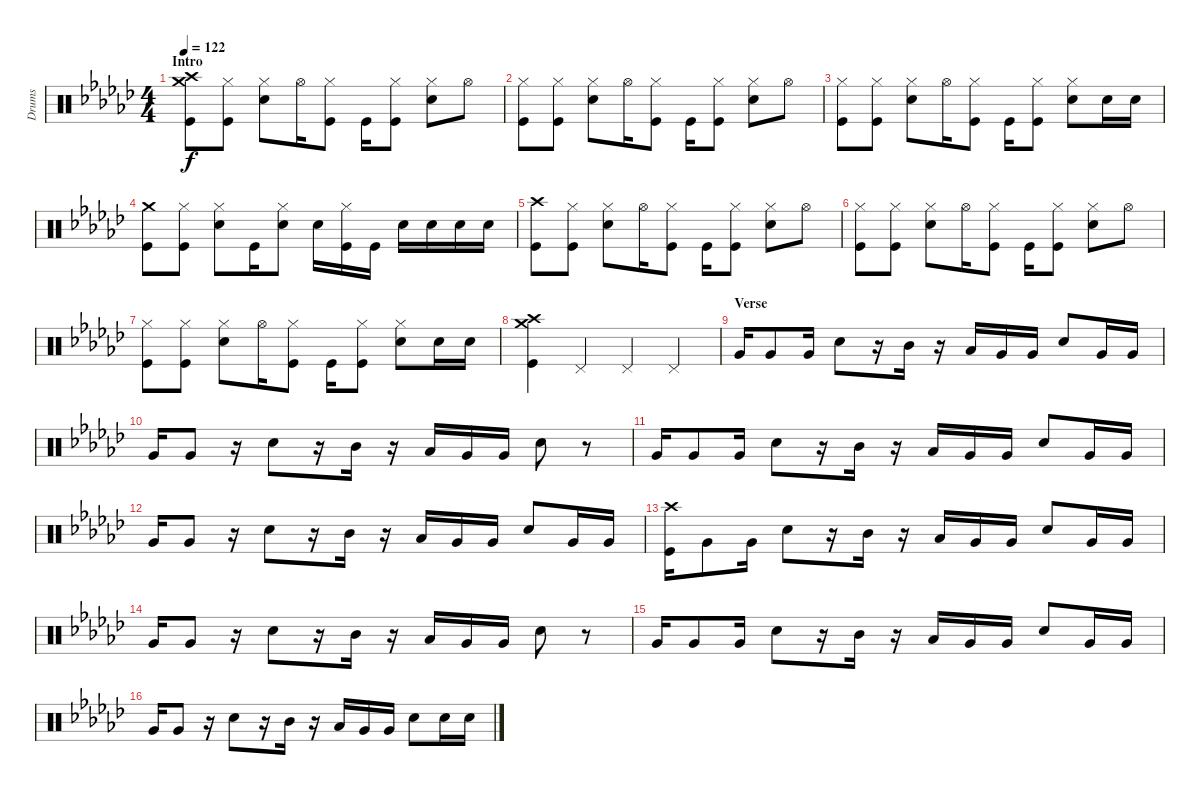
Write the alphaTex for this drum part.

\track ("Drums" "Drums") {instrument percussion}
\staff {score}
\articulation defaults
\ts (4 4)
\section ("" "Intro")
\tempo 122
\clef neutral
\ks ebminor
("Crash medium (hit)" "Crash high (hit)" "Kick (hit)").8{dy f} ("Hi-Hat (closed)" "Kick (hit)").8 ("Hi-Hat (closed)" "Snare (hit) 2").8 "Hi-Hat (open)".16 ("Hi-Hat (closed)" "Kick (hit)").8 "Kick (hit)".16 ("Hi-Hat (closed)" "Kick (hit)").8 ("Hi-Hat (closed)" "Snare (hit) 2").8 "Hi-Hat (open)".8 |
("Hi-Hat (closed)" "Kick (hit)").8 ("Hi-Hat (closed)" "Kick (hit)").8 ("Hi-Hat (closed)" "Snare (hit) 2").8 "Hi-Hat (open)".16 ("Hi-Hat (closed)" "Kick (hit)").8 "Kick (hit)".16 ("Hi-Hat (closed)" "Kick (hit)").8 ("Hi-Hat (closed)" "Snare (hit) 2").8 "Hi-Hat (open)".8 |
("Hi-Hat (closed)" "Kick (hit)").8 ("Hi-Hat (closed)" "Kick (hit)").8 ("Hi-Hat (closed)" "Snare (hit) 2").8 "Hi-Hat (open)".16 ("Hi-Hat (closed)" "Kick (hit)").8 "Kick (hit)".16 ("Hi-Hat (closed)" "Kick (hit)").8 ("Hi-Hat (closed)" "Snare (hit) 2").8 "Snare (hit) 2".16 "Snare (hit) 2".16 |
("Crash medium (hit)" "Kick (hit)").8 ("Hi-Hat (closed)" "Kick (hit)").8 ("Hi-Hat (closed)" "Snare (hit) 2").8 "Kick (hit)".16 ("Hi-Hat (closed)" "Snare (hit) 2").8 "Snare (hit) 2".16 ("Hi-Hat (closed)" "Kick (hit)").16 "Kick (hit)".16 "Snare (hit) 2".16 "Snare (hit) 2".16 "Snare (hit) 2".16 "Snare (hit) 2".16 |
("Crash high (hit)" "Kick (hit)").8 ("Hi-Hat (closed)" "Kick (hit)").8 ("Hi-Hat (closed)" "Snare (hit) 2").8 "Hi-Hat (open)".16 ("Hi-Hat (closed)" "Kick (hit)").8 "Kick (hit)".16 ("Hi-Hat (closed)" "Kick (hit)").8 ("Hi-Hat (closed)" "Snare (hit) 2").8 "Hi-Hat (open)".8 |
("Hi-Hat (closed)" "Kick (hit)").8 ("Hi-Hat (closed)" "Kick (hit)").8 ("Hi-Hat (closed)" "Snare (hit) 2").8 "Hi-Hat (open)".16 ("Hi-Hat (closed)" "Kick (hit)").8 "Kick (hit)".16 ("Hi-Hat (closed)" "Kick (hit)").8 ("Hi-Hat (closed)" "Snare (hit) 2").8 "Hi-Hat (open)".8 |
("Hi-Hat (closed)" "Kick (hit)").8 ("Hi-Hat (closed)" "Kick (hit)").8 ("Hi-Hat (closed)" "Snare (hit) 2").8 "Hi-Hat (open)".16 ("Hi-Hat (closed)" "Kick (hit)").8 "Kick (hit)".16 ("Hi-Hat (closed)" "Kick (hit)").8 ("Hi-Hat (closed)" "Snare (hit) 2").8 "Snare (hit) 2".16 "Snare (hit) 2".16 |
("Crash high (hit)" "Crash medium (hit)" "Kick (hit)").4 "Pedal Hi-Hat (hit)".4 "Pedal Hi-Hat (hit)".4 "Pedal Hi-Hat (hit)".4 |
\section ("" "Verse")
"Very Low Tom (hit)".16 "Very Low Tom (hit)".8 "Very Low Tom (hit)".16 "Snare (hit) 2".8 r.16 "Mid Tom (hit)".16 r.16 "Low Tom (hit)".16 "Very Low Tom (hit)".16 "Very Low Tom (hit)".16 "Snare (hit) 2".8 "Very Low Tom (hit)".16 "Very Low Tom (hit)".16 |
"Very Low Tom (hit)".16 "Very Low Tom (hit)".8 r.16 "Snare (hit) 2".8 r.16 "Mid Tom (hit)".16 r.16 "Low Tom (hit)".16 "Very Low Tom (hit)".16 "Very Low Tom (hit)".16 "Snare (hit) 2".8 r.8 |
"Very Low Tom (hit)".16 "Very Low Tom (hit)".8 "Very Low Tom (hit)".16 "Snare (hit) 2".8 r.16 "Mid Tom (hit)".16 r.16 "Low Tom (hit)".16 "Very Low Tom (hit)".16 "Very Low Tom (hit)".16 "Snare (hit) 2".8 "Very Low Tom (hit)".16 "Very Low Tom (hit)".16 |
"Very Low Tom (hit)".16 "Very Low Tom (hit)".8 r.16 "Snare (hit) 2".8 r.16 "Mid Tom (hit)".16 r.16 "Low Tom (hit)".16 "Very Low Tom (hit)".16 "Very Low Tom (hit)".16 "Snare (hit) 2".8 "Very Low Tom (hit)".16 "Very Low Tom (hit)".16 |
("Crash high (hit)" "Kick (hit)").16 "Very Low Tom (hit)".8 "Very Low Tom (hit)".16 "Snare (hit) 2".8 r.16 "Mid Tom (hit)".16 r.16 "Low Tom (hit)".16 "Very Low Tom (hit)".16 "Very Low Tom (hit)".16 "Snare (hit) 2".8 "Very Low Tom (hit)".16 "Very Low Tom (hit)".16 |
"Very Low Tom (hit)".16 "Very Low Tom (hit)".8 r.16 "Snare (hit) 2".8 r.16 "Mid Tom (hit)".16 r.16 "Low Tom (hit)".16 "Very Low Tom (hit)".16 "Very Low Tom (hit)".16 "Snare (hit) 2".8 r.8 |
"Very Low Tom (hit)".16 "Very Low Tom (hit)".8 "Very Low Tom (hit)".16 "Snare (hit) 2".8 r.16 "Mid Tom (hit)".16 r.16 "Low Tom (hit)".16 "Very Low Tom (hit)".16 "Very Low Tom (hit)".16 "Snare (hit) 2".8 "Very Low Tom (hit)".16 "Very Low Tom (hit)".16 |
"Very Low Tom (hit)".16 "Very Low Tom (hit)".8 r.16 "Snare (hit) 2".8 r.16 "Mid Tom (hit)".16 r.16 "Low Tom (hit)".16 "Very Low Tom (hit)".16 "Very Low Tom (hit)".16 "Snare (hit) 2".8 "Snare (hit) 2".16 "Snare (hit) 2".16
